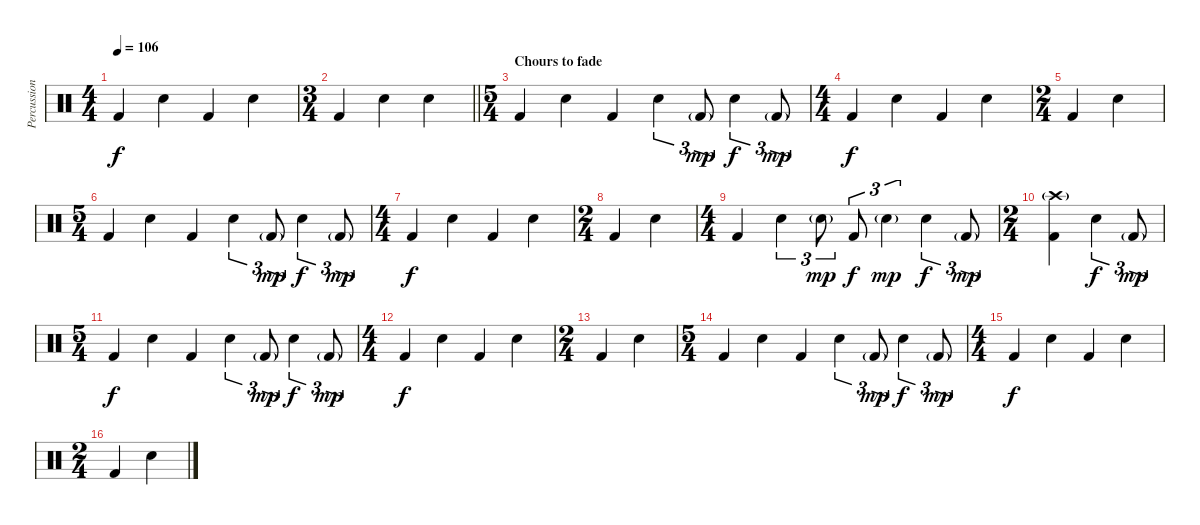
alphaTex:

\track ("Percussion" "Percussion") {instrument percussion}
\staff {score}
\articulation defaults
\ts (4 4)
\tempo 106
\clef neutral
\ks c "Kick (hit) 2".4{dy f} "Snare (hit) 2".4 "Kick (hit) 2".4 "Snare (hit) 2".4
|
\ts (3 4)
\barLineRight lightlight "Kick (hit) 2".4 "Snare (hit) 2".4 "Snare (hit) 2".4
|
\ts (5 4)
\section ("" "Chours to fade")
"Kick (hit) 2".4 "Snare (hit) 2".4 "Kick (hit) 2".4 "Snare (hit) 2".4{tu (3 2)} "Kick (hit) 2"{g}.8{tu (3 2) dy mp} "Snare (hit) 2".4{tu (3 2) dy f} "Kick (hit) 2"{g}.8{tu (3 2) dy mp} |
\ts (4 4)
"Kick (hit) 2".4{dy f} "Snare (hit) 2".4 "Kick (hit) 2".4 "Snare (hit) 2".4 |
\ts (2 4)
"Kick (hit) 2".4 "Snare (hit) 2".4 |
\ts (5 4)
"Kick (hit) 2".4 "Snare (hit) 2".4 "Kick (hit) 2".4 "Snare (hit) 2".4{tu (3 2)} "Kick (hit) 2"{g}.8{tu (3 2) dy mp} "Snare (hit) 2".4{tu (3 2) dy f} "Kick (hit) 2"{g}.8{tu (3 2) dy mp} |
\ts (4 4)
"Kick (hit) 2".4{dy f} "Snare (hit) 2".4 "Kick (hit) 2".4 "Snare (hit) 2".4 |
\ts (2 4)
"Kick (hit) 2".4 "Snare (hit) 2".4 |
\ts (4 4)
"Kick (hit) 2".4 "Snare (hit) 2".4{tu (3 2)} "Snare (hit) 2"{g}.8{tu (3 2) dy mp} "Kick (hit) 2".8{tu (3 2) dy f} "Snare (hit) 2"{g}.4{tu (3 2) dy mp} "Snare (hit) 2".4{tu (3 2) dy f} "Kick (hit) 2"{g}.8{tu (3 2) dy mp} |
\ts (2 4)
("Crash high (hit)"{g} "Kick (hit) 2").4 "Snare (hit) 2".4{tu (3 2) dy f} "Kick (hit) 2"{g}.8{tu (3 2) dy mp} |
\ts (5 4)
"Kick (hit) 2".4{dy f} "Snare (hit) 2".4 "Kick (hit) 2".4 "Snare (hit) 2".4{tu (3 2)} "Kick (hit) 2"{g}.8{tu (3 2) dy mp} "Snare (hit) 2".4{tu (3 2) dy f} "Kick (hit) 2"{g}.8{tu (3 2) dy mp} |
\ts (4 4)
"Kick (hit) 2".4{dy f} "Snare (hit) 2".4 "Kick (hit) 2".4 "Snare (hit) 2".4 |
\ts (2 4)
"Kick (hit) 2".4 "Snare (hit) 2".4 |
\ts (5 4)
"Kick (hit) 2".4 "Snare (hit) 2".4 "Kick (hit) 2".4 "Snare (hit) 2".4{tu (3 2)} "Kick (hit) 2"{g}.8{tu (3 2) dy mp} "Snare (hit) 2".4{tu (3 2) dy f} "Kick (hit) 2"{g}.8{tu (3 2) dy mp} |
\ts (4 4)
"Kick (hit) 2".4{dy f} "Snare (hit) 2".4 "Kick (hit) 2".4 "Snare (hit) 2".4 |
\ts (2 4)
"Kick (hit) 2".4 "Snare (hit) 2".4
